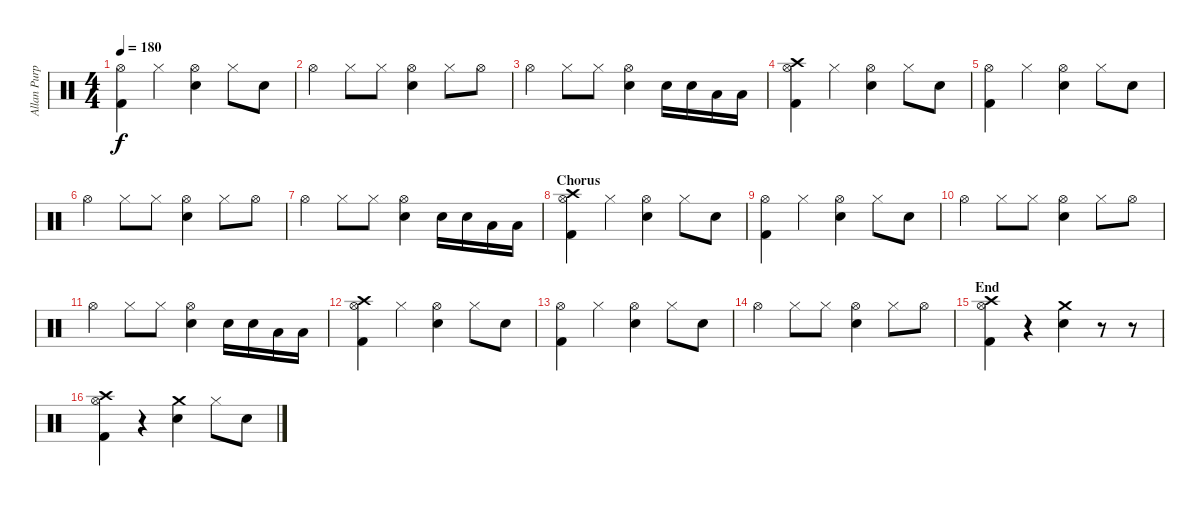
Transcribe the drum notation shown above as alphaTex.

\track ("Allan Purple" "Allan Purp") {instrument percussion}
\staff {score}
\articulation defaults
\ts (4 4)
\tempo 180
\clef neutral
\ks c
("Hi-Hat (open)" "Kick (hit) 2").4{dy f} "Hi-Hat (closed)".4 ("Hi-Hat (open)" "Snare (hit) 2").4 "Hi-Hat (closed)".8 "Snare (hit) 2".8 |
"Hi-Hat (open)".4 "Hi-Hat (closed)".8 "Hi-Hat (closed)".8 ("Hi-Hat (open)" "Snare (hit) 2").4 "Hi-Hat (closed)".8 "Hi-Hat (open)".8 |
"Hi-Hat (open)".4 "Hi-Hat (closed)".8 "Hi-Hat (closed)".8 ("Hi-Hat (open)" "Snare (hit) 2").4 "Electric Snare (hit)".16 "Electric Snare (hit)".16 "Low Tom (hit)".16 "Low Tom (hit)".16 |
("Crash high (hit)" "Hi-Hat (open)" "Kick (hit) 2").4 "Hi-Hat (closed)".4 ("Hi-Hat (open)" "Snare (hit) 2").4 "Hi-Hat (closed)".8 "Snare (hit) 2".8 |
("Hi-Hat (open)" "Kick (hit) 2").4 "Hi-Hat (closed)".4 ("Hi-Hat (open)" "Snare (hit) 2").4 "Hi-Hat (closed)".8 "Snare (hit) 2".8 |
"Hi-Hat (open)".4 "Hi-Hat (closed)".8 "Hi-Hat (closed)".8 ("Hi-Hat (open)" "Snare (hit) 2").4 "Hi-Hat (closed)".8 "Hi-Hat (open)".8 |
"Hi-Hat (open)".4 "Hi-Hat (closed)".8 "Hi-Hat (closed)".8 ("Hi-Hat (open)" "Snare (hit) 2").4 "Electric Snare (hit)".16 "Electric Snare (hit)".16 "Low Tom (hit)".16 "Low Tom (hit)".16 |
\section ("" "Chorus")
("Crash high (hit)" "Hi-Hat (open)" "Kick (hit) 2").4 "Hi-Hat (closed)".4 ("Hi-Hat (open)" "Snare (hit) 2").4 "Hi-Hat (closed)".8 "Snare (hit) 2".8 |
("Hi-Hat (open)" "Kick (hit) 2").4 "Hi-Hat (closed)".4 ("Hi-Hat (open)" "Snare (hit) 2").4 "Hi-Hat (closed)".8 "Snare (hit) 2".8 |
"Hi-Hat (open)".4 "Hi-Hat (closed)".8 "Hi-Hat (closed)".8 ("Hi-Hat (open)" "Snare (hit) 2").4 "Hi-Hat (closed)".8 "Hi-Hat (open)".8 |
"Hi-Hat (open)".4 "Hi-Hat (closed)".8 "Hi-Hat (closed)".8 ("Hi-Hat (open)" "Snare (hit) 2").4 "Electric Snare (hit)".16 "Electric Snare (hit)".16 "Low Tom (hit)".16 "Low Tom (hit)".16 |
("Crash high (hit)" "Hi-Hat (open)" "Kick (hit) 2").4 "Hi-Hat (closed)".4 ("Hi-Hat (open)" "Snare (hit) 2").4 "Hi-Hat (closed)".8 "Snare (hit) 2".8 |
("Hi-Hat (open)" "Kick (hit) 2").4 "Hi-Hat (closed)".4 ("Hi-Hat (open)" "Snare (hit) 2").4 "Hi-Hat (closed)".8 "Snare (hit) 2".8 |
"Hi-Hat (open)".4 "Hi-Hat (closed)".8 "Hi-Hat (closed)".8 ("Hi-Hat (open)" "Snare (hit) 2").4 "Hi-Hat (closed)".8 "Hi-Hat (open)".8 |
\section ("" "End")
("Crash high (hit)" "Hi-Hat (open)" "Kick (hit) 2").4 r.4 ("Crash medium (hit)" "Snare (hit) 2").4 r.8 r.8 |
("Crash high (hit)" "Hi-Hat (open)" "Kick (hit) 2").4 r.4 ("Crash medium (hit)" "Snare (hit) 2").4 "Hi-Hat (closed)".8 "Snare (hit) 2".8
